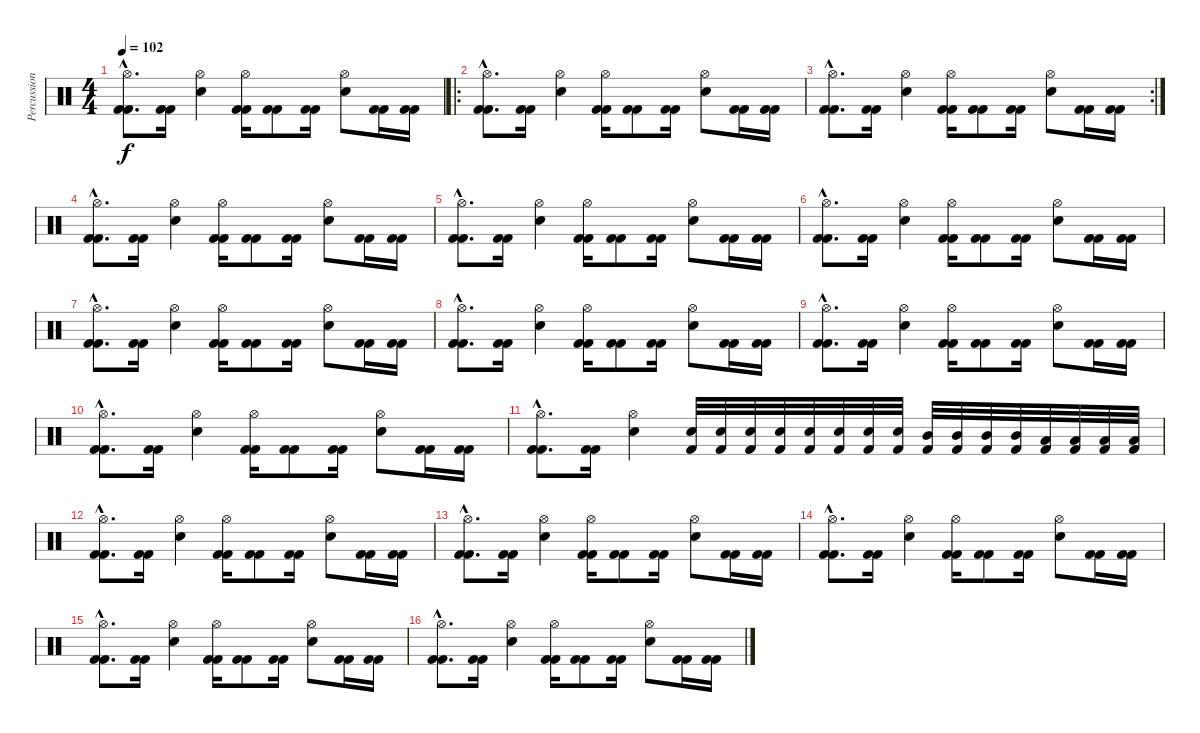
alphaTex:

\track ("Percussion" "Percussion") {instrument percussion}
\staff {score}
\articulation defaults
\ts (4 4)
\tempo 102
\clef neutral
\ks c
("Kick (hit) 2"{hac} "Hi-Hat (open)"{hac} "Kick (hit) 2"{hac}).8{d dy f} ("Kick (hit) 2" "Kick (hit) 2").16 ("Snare (hit) 2" "Hi-Hat (open)").4 ("Kick (hit) 2" "Hi-Hat (open)" "Kick (hit) 2").16 ("Kick (hit) 2" "Kick (hit) 2").8 ("Kick (hit) 2" "Kick (hit) 2").16 ("Snare (hit) 2" "Hi-Hat (open)").8 ("Kick (hit) 2" "Kick (hit) 2").16 ("Kick (hit) 2" "Kick (hit) 2").16 |
\ro
("Kick (hit) 2"{hac} "Hi-Hat (open)"{hac} "Kick (hit) 2"{hac}).8{d} ("Kick (hit) 2" "Kick (hit) 2").16 ("Snare (hit) 2" "Hi-Hat (open)").4 ("Kick (hit) 2" "Hi-Hat (open)" "Kick (hit) 2").16 ("Kick (hit) 2" "Kick (hit) 2").8 ("Kick (hit) 2" "Kick (hit) 2").16 ("Snare (hit) 2" "Hi-Hat (open)").8 ("Kick (hit) 2" "Kick (hit) 2").16 ("Kick (hit) 2" "Kick (hit) 2").16 |
\rc 2
("Kick (hit) 2"{hac} "Hi-Hat (open)"{hac} "Kick (hit) 2"{hac}).8{d} ("Kick (hit) 2" "Kick (hit) 2").16 ("Snare (hit) 2" "Hi-Hat (open)").4 ("Kick (hit) 2" "Hi-Hat (open)" "Kick (hit) 2").16 ("Kick (hit) 2" "Kick (hit) 2").8 ("Kick (hit) 2" "Kick (hit) 2").16 ("Snare (hit) 2" "Hi-Hat (open)").8 ("Kick (hit) 2" "Kick (hit) 2").16 ("Kick (hit) 2" "Kick (hit) 2").16 |
("Kick (hit) 2"{hac} "Hi-Hat (open)"{hac} "Kick (hit) 2"{hac}).8{d} ("Kick (hit) 2" "Kick (hit) 2").16 ("Snare (hit) 2" "Hi-Hat (open)").4 ("Kick (hit) 2" "Hi-Hat (open)" "Kick (hit) 2").16 ("Kick (hit) 2" "Kick (hit) 2").8 ("Kick (hit) 2" "Kick (hit) 2").16 ("Snare (hit) 2" "Hi-Hat (open)").8 ("Kick (hit) 2" "Kick (hit) 2").16 ("Kick (hit) 2" "Kick (hit) 2").16 |
("Kick (hit) 2"{hac} "Hi-Hat (open)"{hac} "Kick (hit) 2"{hac}).8{d} ("Kick (hit) 2" "Kick (hit) 2").16 ("Snare (hit) 2" "Hi-Hat (open)").4 ("Kick (hit) 2" "Hi-Hat (open)" "Kick (hit) 2").16 ("Kick (hit) 2" "Kick (hit) 2").8 ("Kick (hit) 2" "Kick (hit) 2").16 ("Snare (hit) 2" "Hi-Hat (open)").8 ("Kick (hit) 2" "Kick (hit) 2").16 ("Kick (hit) 2" "Kick (hit) 2").16 |
("Kick (hit) 2"{hac} "Hi-Hat (open)"{hac} "Kick (hit) 2"{hac}).8{d} ("Kick (hit) 2" "Kick (hit) 2").16 ("Snare (hit) 2" "Hi-Hat (open)").4 ("Kick (hit) 2" "Hi-Hat (open)" "Kick (hit) 2").16 ("Kick (hit) 2" "Kick (hit) 2").8 ("Kick (hit) 2" "Kick (hit) 2").16 ("Snare (hit) 2" "Hi-Hat (open)").8 ("Kick (hit) 2" "Kick (hit) 2").16 ("Kick (hit) 2" "Kick (hit) 2").16 |
("Kick (hit) 2"{hac} "Hi-Hat (open)"{hac} "Kick (hit) 2"{hac}).8{d} ("Kick (hit) 2" "Kick (hit) 2").16 ("Snare (hit) 2" "Hi-Hat (open)").4 ("Kick (hit) 2" "Hi-Hat (open)" "Kick (hit) 2").16 ("Kick (hit) 2" "Kick (hit) 2").8 ("Kick (hit) 2" "Kick (hit) 2").16 ("Snare (hit) 2" "Hi-Hat (open)").8 ("Kick (hit) 2" "Kick (hit) 2").16 ("Kick (hit) 2" "Kick (hit) 2").16 |
("Kick (hit) 2"{hac} "Hi-Hat (open)"{hac} "Kick (hit) 2"{hac}).8{d} ("Kick (hit) 2" "Kick (hit) 2").16 ("Snare (hit) 2" "Hi-Hat (open)").4 ("Kick (hit) 2" "Hi-Hat (open)" "Kick (hit) 2").16 ("Kick (hit) 2" "Kick (hit) 2").8 ("Kick (hit) 2" "Kick (hit) 2").16 ("Snare (hit) 2" "Hi-Hat (open)").8 ("Kick (hit) 2" "Kick (hit) 2").16 ("Kick (hit) 2" "Kick (hit) 2").16 |
("Kick (hit) 2"{hac} "Hi-Hat (open)"{hac} "Kick (hit) 2"{hac}).8{d} ("Kick (hit) 2" "Kick (hit) 2").16 ("Snare (hit) 2" "Hi-Hat (open)").4 ("Kick (hit) 2" "Hi-Hat (open)" "Kick (hit) 2").16 ("Kick (hit) 2" "Kick (hit) 2").8 ("Kick (hit) 2" "Kick (hit) 2").16 ("Snare (hit) 2" "Hi-Hat (open)").8 ("Kick (hit) 2" "Kick (hit) 2").16 ("Kick (hit) 2" "Kick (hit) 2").16 |
("Kick (hit) 2"{hac} "Hi-Hat (open)"{hac} "Kick (hit) 2"{hac}).8{d} ("Kick (hit) 2" "Kick (hit) 2").16 ("Snare (hit) 2" "Hi-Hat (open)").4 ("Kick (hit) 2" "Hi-Hat (open)" "Kick (hit) 2").16 ("Kick (hit) 2" "Kick (hit) 2").8 ("Kick (hit) 2" "Kick (hit) 2").16 ("Snare (hit) 2" "Hi-Hat (open)").8 ("Kick (hit) 2" "Kick (hit) 2").16 ("Kick (hit) 2" "Kick (hit) 2").16 |
("Kick (hit) 2"{hac} "Hi-Hat (open)"{hac} "Kick (hit) 2"{hac}).8{d} ("Kick (hit) 2" "Kick (hit) 2").16 ("Snare (hit) 2" "Hi-Hat (open)").4 ("Kick (hit) 2" "Snare (hit) 2").32 ("Kick (hit) 2" "Snare (hit) 2").32 ("Kick (hit) 2" "Snare (hit) 2").32 ("Kick (hit) 2" "Snare (hit) 2").32 ("Kick (hit) 2" "Snare (hit) 2").32 ("Kick (hit) 2" "Snare (hit) 2").32 ("Kick (hit) 2" "Snare (hit) 2").32 ("Kick (hit) 2" "Snare (hit) 2").32 ("Kick (hit) 2" "Mid Tom (hit)").32 ("Kick (hit) 2" "Mid Tom (hit)").32 ("Kick (hit) 2" "Mid Tom (hit)").32 ("Kick (hit) 2" "Mid Tom (hit)").32 ("Kick (hit) 2" "Low Tom (hit)").32 ("Kick (hit) 2" "Low Tom (hit)").32 ("Kick (hit) 2" "Low Tom (hit)").32 ("Kick (hit) 2" "Low Tom (hit)").32 |
("Kick (hit) 2"{hac} "Hi-Hat (open)"{hac} "Kick (hit) 2"{hac}).8{d} ("Kick (hit) 2" "Kick (hit) 2").16 ("Snare (hit) 2" "Hi-Hat (open)").4 ("Kick (hit) 2" "Hi-Hat (open)" "Kick (hit) 2").16 ("Kick (hit) 2" "Kick (hit) 2").8 ("Kick (hit) 2" "Kick (hit) 2").16 ("Snare (hit) 2" "Hi-Hat (open)").8 ("Kick (hit) 2" "Kick (hit) 2").16 ("Kick (hit) 2" "Kick (hit) 2").16 |
("Kick (hit) 2"{hac} "Hi-Hat (open)"{hac} "Kick (hit) 2"{hac}).8{d} ("Kick (hit) 2" "Kick (hit) 2").16 ("Snare (hit) 2" "Hi-Hat (open)").4 ("Kick (hit) 2" "Hi-Hat (open)" "Kick (hit) 2").16 ("Kick (hit) 2" "Kick (hit) 2").8 ("Kick (hit) 2" "Kick (hit) 2").16 ("Snare (hit) 2" "Hi-Hat (open)").8 ("Kick (hit) 2" "Kick (hit) 2").16 ("Kick (hit) 2" "Kick (hit) 2").16 |
("Kick (hit) 2"{hac} "Hi-Hat (open)"{hac} "Kick (hit) 2"{hac}).8{d} ("Kick (hit) 2" "Kick (hit) 2").16 ("Snare (hit) 2" "Hi-Hat (open)").4 ("Kick (hit) 2" "Hi-Hat (open)" "Kick (hit) 2").16 ("Kick (hit) 2" "Kick (hit) 2").8 ("Kick (hit) 2" "Kick (hit) 2").16 ("Snare (hit) 2" "Hi-Hat (open)").8 ("Kick (hit) 2" "Kick (hit) 2").16 ("Kick (hit) 2" "Kick (hit) 2").16 |
("Kick (hit) 2"{hac} "Hi-Hat (open)"{hac} "Kick (hit) 2"{hac}).8{d} ("Kick (hit) 2" "Kick (hit) 2").16 ("Snare (hit) 2" "Hi-Hat (open)").4 ("Kick (hit) 2" "Hi-Hat (open)" "Kick (hit) 2").16 ("Kick (hit) 2" "Kick (hit) 2").8 ("Kick (hit) 2" "Kick (hit) 2").16 ("Snare (hit) 2" "Hi-Hat (open)").8 ("Kick (hit) 2" "Kick (hit) 2").16 ("Kick (hit) 2" "Kick (hit) 2").16 |
("Kick (hit) 2"{hac} "Hi-Hat (open)"{hac} "Kick (hit) 2"{hac}).8{d} ("Kick (hit) 2" "Kick (hit) 2").16 ("Snare (hit) 2" "Hi-Hat (open)").4 ("Kick (hit) 2" "Hi-Hat (open)" "Kick (hit) 2").16 ("Kick (hit) 2" "Kick (hit) 2").8 ("Kick (hit) 2" "Kick (hit) 2").16 ("Snare (hit) 2" "Hi-Hat (open)").8 ("Kick (hit) 2" "Kick (hit) 2").16 ("Kick (hit) 2" "Kick (hit) 2").16
